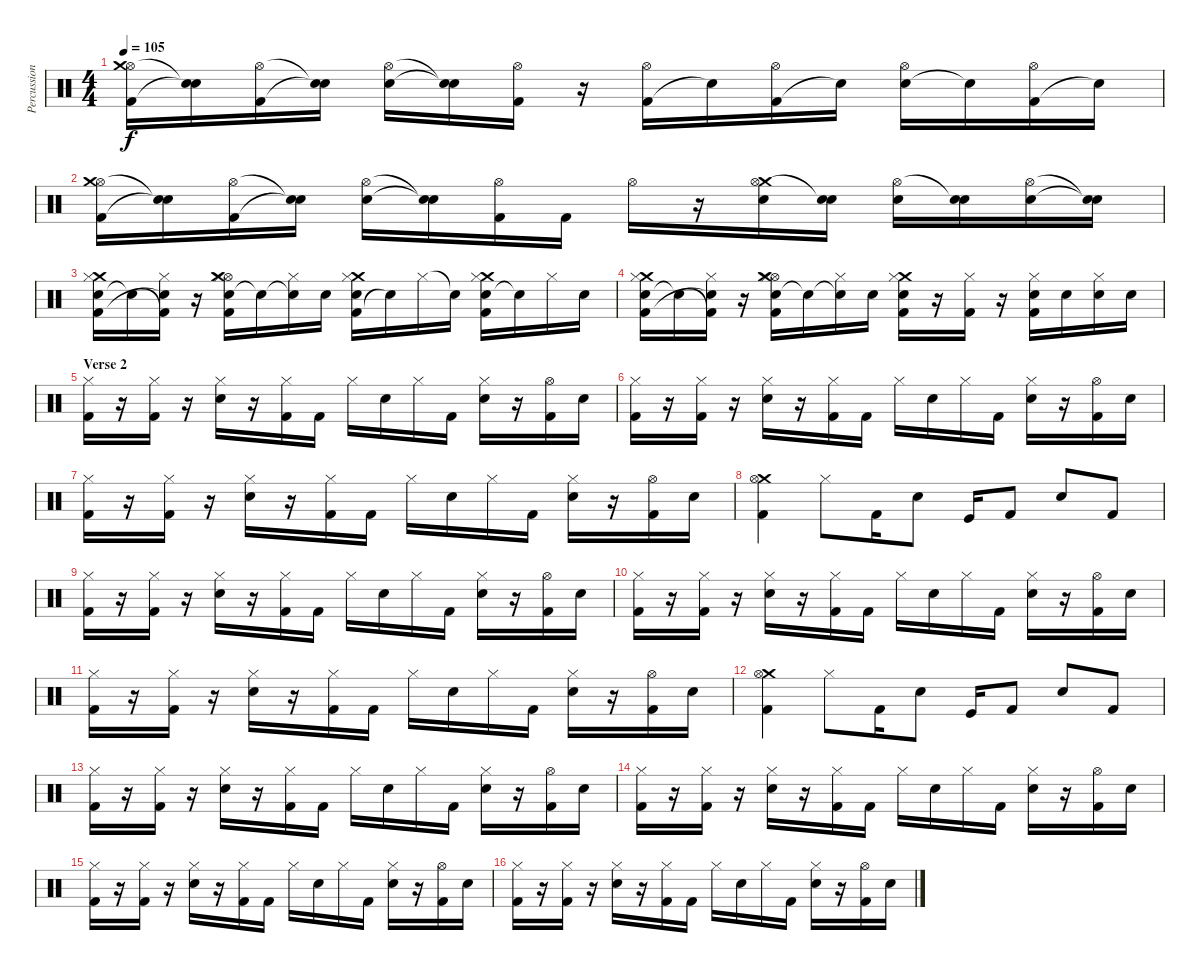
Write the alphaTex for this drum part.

\track ("Percussion" "Percussion") {instrument percussion}
\staff {score}
\articulation defaults
\ts (4 4)
\tempo 105
\clef neutral
\ks c
("Kick (hit) 2" "Hi-Hat (open)" "Crash medium (hit)").16{dy f} ("Snare (hit)"{t} "Snare (hit)"{t}).16 ("Kick (hit) 2" "Hi-Hat (open)").16 ("Snare (hit)"{t} "Snare (hit)"{t}).16 ("Electric Snare (hit)" "Hi-Hat (open)").16 ("Snare (hit)"{t} "Snare (hit)"{t}).16 ("Kick (hit) 2" "Hi-Hat (open)").16 r.16 ("Kick (hit) 2" "Hi-Hat (open)").16 "Snare (hit)"{t}.16 ("Kick (hit) 2" "Hi-Hat (open)").16 "Snare (hit)"{t}.16 ("Snare (hit) 2" "Hi-Hat (open)").16 "Snare (hit)"{t}.16 ("Kick (hit) 2" "Hi-Hat (open)").16 "Snare (hit)"{t}.16 |
("Kick (hit) 2" "Hi-Hat (open)" "Crash medium (hit)").16 ("Snare (hit)"{t} "Snare (hit)"{t}).16 ("Kick (hit) 2" "Hi-Hat (open)").16 ("Snare (hit)"{t} "Snare (hit)"{t}).16 ("Electric Snare (hit)" "Hi-Hat (open)").16 ("Snare (hit)"{t} "Snare (hit)"{t}).16 ("Kick (hit) 2" "Hi-Hat (open)").16 "Kick (hit) 2".16 "Hi-Hat (open)".16 r.16 ("Snare (hit) 2" "Crash medium (hit)" "Hi-Hat (open)").16 ("Snare (hit) 2" "Snare (hit)"{t}).16 ("Snare (hit) 2" "Hi-Hat (open)").16 ("Snare (hit) 2" "Snare (hit)"{t}).16 ("Snare (hit) 2" "Hi-Hat (open)").16 ("Snare (hit) 2"{t} "Snare (hit)"{t}).16 |
("Snare (hit) 2" "Kick (hit) 2" "Crash medium (hit)" "Hi-Hat (closed)").16 "Snare (hit)"{t}.16 ("Kick (hit) 2"{t} "Snare (hit) 2"{t} "Hi-Hat (closed)").16 r.16 ("Snare (hit) 2" "Hi-Hat (open)" "Kick (hit) 2" "Crash medium (hit)" "Hi-Hat (closed)").16 "Snare (hit)"{t}.16 ("Snare (hit)"{t} "Hi-Hat (closed)").16 "Snare (hit) 2".16 ("Kick (hit) 2" "Snare (hit) 2" "Crash medium (hit)" "Hi-Hat (closed)").16 "Snare (hit)"{t}.16 "Hi-Hat (closed)".16 "Snare (hit)"{t}.16 ("Snare (hit) 2" "Kick (hit) 2" "Crash medium (hit)" "Hi-Hat (closed)").16 "Snare (hit)"{t}.16 "Hi-Hat (closed)".16 "Snare (hit) 2".16 |
("Snare (hit) 2" "Kick (hit) 2" "Crash medium (hit)" "Hi-Hat (closed)").16 "Snare (hit)"{t}.16 ("Kick (hit) 2"{t} "Snare (hit) 2"{t} "Hi-Hat (closed)").16 r.16 ("Snare (hit) 2" "Hi-Hat (open)" "Kick (hit) 2" "Crash medium (hit)" "Hi-Hat (closed)").16 "Snare (hit)"{t}.16 ("Snare (hit)"{t} "Hi-Hat (closed)").16 "Snare (hit) 2".16 ("Kick (hit) 2" "Snare (hit) 2" "Crash medium (hit)" "Hi-Hat (closed)").16 r.16 ("Kick (hit) 2" "Hi-Hat (closed)").16 r.16 ("Snare (hit) 2" "Kick (hit) 2" "Hi-Hat (closed)").16 "Snare (hit) 2".16 ("Snare (hit) 2" "Hi-Hat (closed)").16 "Snare (hit) 2".16 |
\section ("" "Verse 2")
("Hi-Hat (closed)" "Kick (hit) 2").16 r.16 ("Hi-Hat (closed)" "Kick (hit) 2").16 r.16 ("Hi-Hat (closed)" "Electric Snare (hit)").16 r.16 ("Hi-Hat (closed)" "Kick (hit) 2").16 "Kick (hit) 2".16 "Hi-Hat (closed)".16 "Electric Snare (hit)".16 "Hi-Hat (closed)".16 "Kick (hit) 2".16 ("Hi-Hat (closed)" "Electric Snare (hit)").16 r.16 ("Hi-Hat (open)" "Kick (hit) 2").16 "Electric Snare (hit)".16 |
("Hi-Hat (closed)" "Kick (hit) 2").16 r.16 ("Hi-Hat (closed)" "Kick (hit) 2").16 r.16 ("Hi-Hat (closed)" "Electric Snare (hit)").16 r.16 ("Hi-Hat (closed)" "Kick (hit) 2").16 "Kick (hit) 2".16 "Hi-Hat (closed)".16 "Electric Snare (hit)".16 "Hi-Hat (closed)".16 "Kick (hit) 2".16 ("Hi-Hat (closed)" "Electric Snare (hit)").16 r.16 ("Hi-Hat (open)" "Kick (hit) 2").16 "Electric Snare (hit)".16 |
("Hi-Hat (closed)" "Kick (hit) 2").16 r.16 ("Hi-Hat (closed)" "Kick (hit) 2").16 r.16 ("Hi-Hat (closed)" "Electric Snare (hit)").16 r.16 ("Hi-Hat (closed)" "Kick (hit) 2").16 "Kick (hit) 2".16 "Hi-Hat (closed)".16 "Electric Snare (hit)".16 "Hi-Hat (closed)".16 "Kick (hit) 2".16 ("Hi-Hat (closed)" "Electric Snare (hit)").16 r.16 ("Hi-Hat (open)" "Kick (hit) 2").16 "Electric Snare (hit)".16 |
("Crash medium (hit)" "Kick (hit) 2" "Hi-Hat (open)").4 "Hi-Hat (closed)".8 "Kick (hit) 2".16 "Snare (hit) 2".8 "Kick (hit)".16 "Kick (hit) 2".8 "Snare (hit) 2".8 "Kick (hit) 2".8 |
("Hi-Hat (closed)" "Kick (hit) 2").16 r.16 ("Hi-Hat (closed)" "Kick (hit) 2").16 r.16 ("Hi-Hat (closed)" "Electric Snare (hit)").16 r.16 ("Hi-Hat (closed)" "Kick (hit) 2").16 "Kick (hit) 2".16 "Hi-Hat (closed)".16 "Electric Snare (hit)".16 "Hi-Hat (closed)".16 "Kick (hit) 2".16 ("Hi-Hat (closed)" "Electric Snare (hit)").16 r.16 ("Hi-Hat (open)" "Kick (hit) 2").16 "Electric Snare (hit)".16 |
("Hi-Hat (closed)" "Kick (hit) 2").16 r.16 ("Hi-Hat (closed)" "Kick (hit) 2").16 r.16 ("Hi-Hat (closed)" "Electric Snare (hit)").16 r.16 ("Hi-Hat (closed)" "Kick (hit) 2").16 "Kick (hit) 2".16 "Hi-Hat (closed)".16 "Electric Snare (hit)".16 "Hi-Hat (closed)".16 "Kick (hit) 2".16 ("Hi-Hat (closed)" "Electric Snare (hit)").16 r.16 ("Hi-Hat (open)" "Kick (hit) 2").16 "Electric Snare (hit)".16 |
("Hi-Hat (closed)" "Kick (hit) 2").16 r.16 ("Hi-Hat (closed)" "Kick (hit) 2").16 r.16 ("Hi-Hat (closed)" "Electric Snare (hit)").16 r.16 ("Hi-Hat (closed)" "Kick (hit) 2").16 "Kick (hit) 2".16 "Hi-Hat (closed)".16 "Electric Snare (hit)".16 "Hi-Hat (closed)".16 "Kick (hit) 2".16 ("Hi-Hat (closed)" "Electric Snare (hit)").16 r.16 ("Hi-Hat (open)" "Kick (hit) 2").16 "Electric Snare (hit)".16 |
("Crash medium (hit)" "Kick (hit) 2" "Hi-Hat (open)").4 "Hi-Hat (closed)".8 "Kick (hit) 2".16 "Snare (hit) 2".8 "Kick (hit)".16 "Kick (hit) 2".8 "Snare (hit) 2".8 "Kick (hit) 2".8 |
("Hi-Hat (closed)" "Kick (hit) 2").16 r.16 ("Hi-Hat (closed)" "Kick (hit) 2").16 r.16 ("Hi-Hat (closed)" "Electric Snare (hit)").16 r.16 ("Hi-Hat (closed)" "Kick (hit) 2").16 "Kick (hit) 2".16 "Hi-Hat (closed)".16 "Electric Snare (hit)".16 "Hi-Hat (closed)".16 "Kick (hit) 2".16 ("Hi-Hat (closed)" "Electric Snare (hit)").16 r.16 ("Hi-Hat (open)" "Kick (hit) 2").16 "Electric Snare (hit)".16 |
("Hi-Hat (closed)" "Kick (hit) 2").16 r.16 ("Hi-Hat (closed)" "Kick (hit) 2").16 r.16 ("Hi-Hat (closed)" "Electric Snare (hit)").16 r.16 ("Hi-Hat (closed)" "Kick (hit) 2").16 "Kick (hit) 2".16 "Hi-Hat (closed)".16 "Electric Snare (hit)".16 "Hi-Hat (closed)".16 "Kick (hit) 2".16 ("Hi-Hat (closed)" "Electric Snare (hit)").16 r.16 ("Hi-Hat (open)" "Kick (hit) 2").16 "Electric Snare (hit)".16 |
("Hi-Hat (closed)" "Kick (hit) 2").16 r.16 ("Hi-Hat (closed)" "Kick (hit) 2").16 r.16 ("Hi-Hat (closed)" "Electric Snare (hit)").16 r.16 ("Hi-Hat (closed)" "Kick (hit) 2").16 "Kick (hit) 2".16 "Hi-Hat (closed)".16 "Electric Snare (hit)".16 "Hi-Hat (closed)".16 "Kick (hit) 2".16 ("Hi-Hat (closed)" "Electric Snare (hit)").16 r.16 ("Hi-Hat (open)" "Kick (hit) 2").16 "Electric Snare (hit)".16 |
("Hi-Hat (closed)" "Kick (hit) 2").16 r.16 ("Hi-Hat (closed)" "Kick (hit) 2").16 r.16 ("Hi-Hat (closed)" "Electric Snare (hit)").16 r.16 ("Hi-Hat (closed)" "Kick (hit) 2").16 "Kick (hit) 2".16 "Hi-Hat (closed)".16 "Electric Snare (hit)".16 "Hi-Hat (closed)".16 "Kick (hit) 2".16 ("Hi-Hat (closed)" "Electric Snare (hit)").16 r.16 ("Hi-Hat (open)" "Kick (hit) 2").16 "Electric Snare (hit)".16
